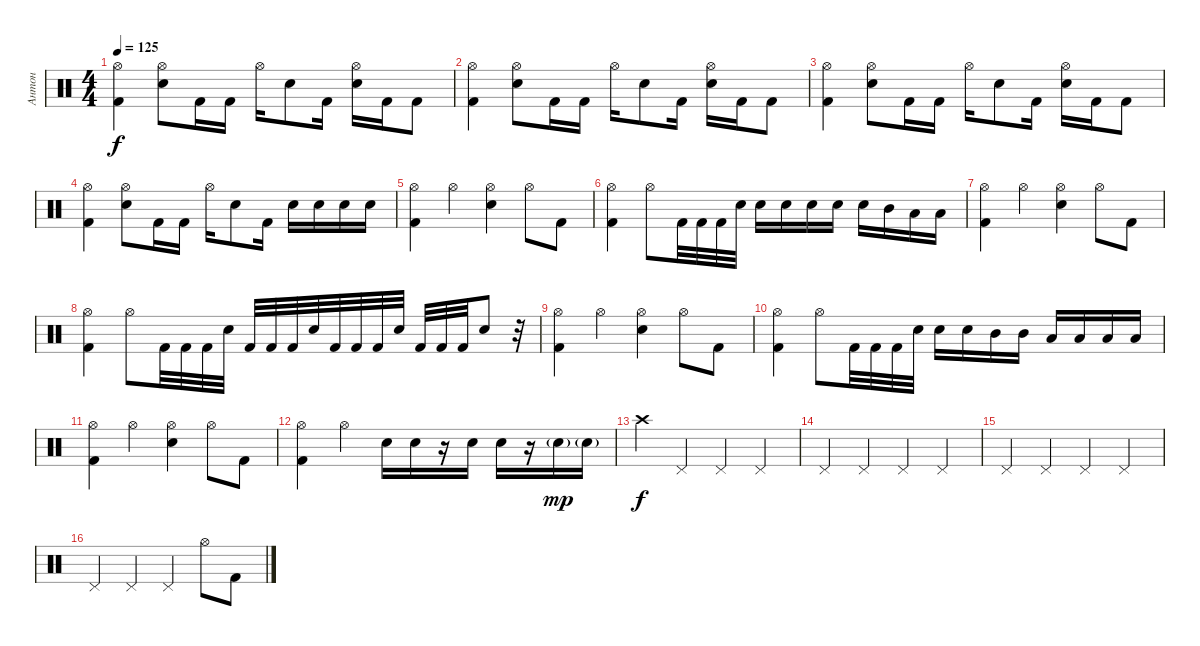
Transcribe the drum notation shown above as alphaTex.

\track ("Антон" "Антон") {instrument percussion}
\staff {score}
\articulation defaults
\ts (4 4)
\tempo 125
\clef neutral
\ks c
("Kick (hit) 2" "Hi-Hat (open)").4{dy f} ("Electric Snare (hit)" "Hi-Hat (open)").8 "Kick (hit) 2".16 "Kick (hit) 2".16 "Hi-Hat (open)".16 "Electric Snare (hit)".8 "Kick (hit) 2".16 ("Electric Snare (hit)" "Hi-Hat (open)").16 "Kick (hit) 2".16 "Kick (hit) 2".8 |
("Kick (hit) 2" "Hi-Hat (open)").4 ("Electric Snare (hit)" "Hi-Hat (open)").8 "Kick (hit) 2".16 "Kick (hit) 2".16 "Hi-Hat (open)".16 "Electric Snare (hit)".8 "Kick (hit) 2".16 ("Electric Snare (hit)" "Hi-Hat (open)").16 "Kick (hit) 2".16 "Kick (hit) 2".8 |
("Kick (hit) 2" "Hi-Hat (open)").4 ("Electric Snare (hit)" "Hi-Hat (open)").8 "Kick (hit) 2".16 "Kick (hit) 2".16 "Hi-Hat (open)".16 "Electric Snare (hit)".8 "Kick (hit) 2".16 ("Electric Snare (hit)" "Hi-Hat (open)").16 "Kick (hit) 2".16 "Kick (hit) 2".8 |
("Kick (hit) 2" "Hi-Hat (open)").4 ("Electric Snare (hit)" "Hi-Hat (open)").8 "Kick (hit) 2".16 "Kick (hit) 2".16 "Hi-Hat (open)".16 "Electric Snare (hit)".8 "Kick (hit) 2".16 "Electric Snare (hit)".16 "Electric Snare (hit)".16 "Electric Snare (hit)".16 "Electric Snare (hit)".16 |
("Hi-Hat (open)" "Kick (hit) 2").4 "Hi-Hat (open)".4 ("Hi-Hat (open)" "Electric Snare (hit)").4 "Hi-Hat (open)".8 "Kick (hit) 2".8 |
("Hi-Hat (open)" "Kick (hit) 2").4 "Hi-Hat (open)".8 "Kick (hit) 2".32 "Kick (hit) 2".32 "Kick (hit) 2".32 "Electric Snare (hit)".32 "Electric Snare (hit)".16 "Electric Snare (hit)".16 "Electric Snare (hit)".16 "Electric Snare (hit)".16 "Electric Snare (hit)".16 "Mid Tom (hit)".16 "Low Tom (hit)".16 "Low Floor Tom (hit)".16 |
("Hi-Hat (open)" "Kick (hit) 2").4 "Hi-Hat (open)".4 ("Hi-Hat (open)" "Electric Snare (hit)").4 "Hi-Hat (open)".8 "Kick (hit) 2".8 |
("Hi-Hat (open)" "Kick (hit) 2").4 "Hi-Hat (open)".8 "Kick (hit) 2".32 "Kick (hit) 2".32 "Kick (hit) 2".32 "Electric Snare (hit)".32 "Kick (hit) 2".32 "Kick (hit) 2".32 "Kick (hit) 2".32 "Electric Snare (hit)".32 "Kick (hit) 2".32 "Kick (hit) 2".32 "Kick (hit) 2".32 "Electric Snare (hit)".32 "Kick (hit) 2".32 "Kick (hit) 2".32 "Kick (hit) 2".32 "Electric Snare (hit)".8 r.32 |
("Hi-Hat (open)" "Kick (hit) 2").4 "Hi-Hat (open)".4 ("Hi-Hat (open)" "Electric Snare (hit)").4 "Hi-Hat (open)".8 "Kick (hit) 2".8 |
("Hi-Hat (open)" "Kick (hit) 2").4 "Hi-Hat (open)".8 "Kick (hit) 2".32 "Kick (hit) 2".32 "Kick (hit) 2".32 "Electric Snare (hit)".32 "Electric Snare (hit)".16 "Electric Snare (hit)".16 "Mid Tom (hit)".16 "Mid Tom (hit)".16 "Low Tom (hit)".16 "Low Tom (hit)".16 "Low Floor Tom (hit)".16 "Low Floor Tom (hit)".16 |
("Hi-Hat (open)" "Kick (hit) 2").4 "Hi-Hat (open)".4 ("Hi-Hat (open)" "Electric Snare (hit)").4 "Hi-Hat (open)".8 "Kick (hit) 2".8 |
("Hi-Hat (open)" "Kick (hit) 2").4 "Hi-Hat (open)".4 "Electric Snare (hit)".16 "Electric Snare (hit)".16 r.16 "Electric Snare (hit)".16 "Electric Snare (hit)".16 r.16 "Electric Snare (hit)"{g}.16{dy mp} "Electric Snare (hit)"{g}.16 |
"Crash high (hit)".4{dy f} "Pedal Hi-Hat (hit)".4 "Pedal Hi-Hat (hit)".4 "Pedal Hi-Hat (hit)".4 |
"Pedal Hi-Hat (hit)".4 "Pedal Hi-Hat (hit)".4 "Pedal Hi-Hat (hit)".4 "Pedal Hi-Hat (hit)".4 |
"Pedal Hi-Hat (hit)".4 "Pedal Hi-Hat (hit)".4 "Pedal Hi-Hat (hit)".4 "Pedal Hi-Hat (hit)".4 |
"Pedal Hi-Hat (hit)".4 "Pedal Hi-Hat (hit)".4 "Pedal Hi-Hat (hit)".4 "Hi-Hat (open)".8 "Kick (hit) 2".8
